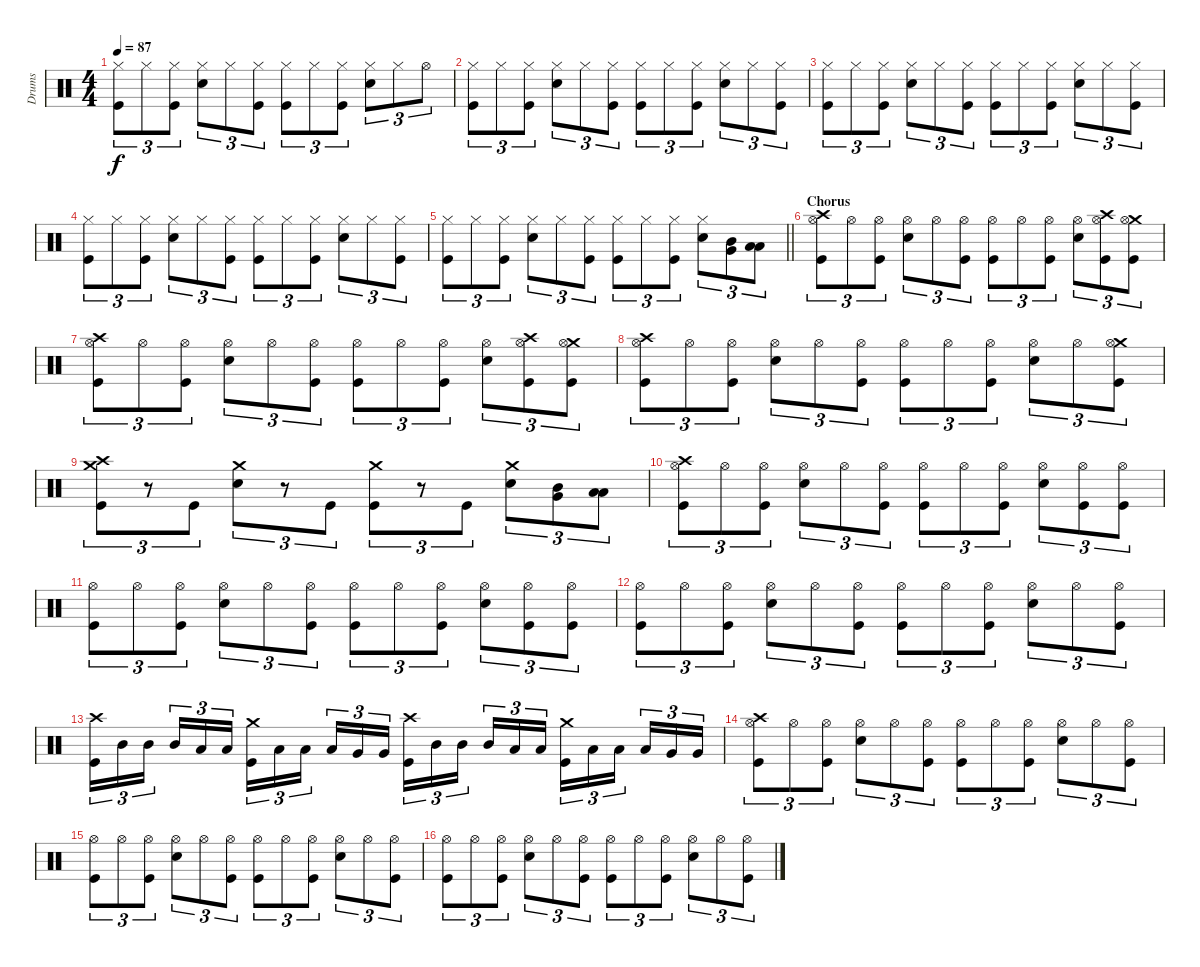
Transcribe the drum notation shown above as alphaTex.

\track ("Drums" "Drums") {instrument percussion}
\staff {score}
\articulation defaults
\ts (4 4)
\tempo 87
\clef neutral
\ks c
("Hi-Hat (closed)" "Kick (hit)").8{tu (3 2) dy f} "Hi-Hat (closed)".8{tu (3 2)} ("Hi-Hat (closed)" "Kick (hit)").8{tu (3 2)} ("Hi-Hat (closed)" "Snare (hit) 2").8{tu (3 2)} "Hi-Hat (closed)".8{tu (3 2)} ("Hi-Hat (closed)" "Kick (hit)").8{tu (3 2)} ("Hi-Hat (closed)" "Kick (hit)").8{tu (3 2)} "Hi-Hat (closed)".8{tu (3 2)} ("Hi-Hat (closed)" "Kick (hit)").8{tu (3 2)} ("Hi-Hat (closed)" "Snare (hit) 2").8{tu (3 2)} "Hi-Hat (closed)".8{tu (3 2)} "Hi-Hat (open)".8{tu (3 2)} |
("Hi-Hat (closed)" "Kick (hit)").8{tu (3 2)} "Hi-Hat (closed)".8{tu (3 2)} ("Hi-Hat (closed)" "Kick (hit)").8{tu (3 2)} ("Hi-Hat (closed)" "Snare (hit) 2").8{tu (3 2)} "Hi-Hat (closed)".8{tu (3 2)} ("Hi-Hat (closed)" "Kick (hit)").8{tu (3 2)} ("Hi-Hat (closed)" "Kick (hit)").8{tu (3 2)} "Hi-Hat (closed)".8{tu (3 2)} ("Hi-Hat (closed)" "Kick (hit)").8{tu (3 2)} ("Hi-Hat (closed)" "Snare (hit) 2").8{tu (3 2)} "Hi-Hat (closed)".8{tu (3 2)} ("Hi-Hat (closed)" "Kick (hit)").8{tu (3 2)} |
("Hi-Hat (closed)" "Kick (hit)").8{tu (3 2)} "Hi-Hat (closed)".8{tu (3 2)} ("Hi-Hat (closed)" "Kick (hit)").8{tu (3 2)} ("Hi-Hat (closed)" "Snare (hit) 2").8{tu (3 2)} "Hi-Hat (closed)".8{tu (3 2)} ("Hi-Hat (closed)" "Kick (hit)").8{tu (3 2)} ("Hi-Hat (closed)" "Kick (hit)").8{tu (3 2)} "Hi-Hat (closed)".8{tu (3 2)} ("Hi-Hat (closed)" "Kick (hit)").8{tu (3 2)} ("Hi-Hat (closed)" "Snare (hit) 2").8{tu (3 2)} "Hi-Hat (closed)".8{tu (3 2)} ("Hi-Hat (closed)" "Kick (hit)").8{tu (3 2)} |
("Hi-Hat (closed)" "Kick (hit)").8{tu (3 2)} "Hi-Hat (closed)".8{tu (3 2)} ("Hi-Hat (closed)" "Kick (hit)").8{tu (3 2)} ("Hi-Hat (closed)" "Snare (hit) 2").8{tu (3 2)} "Hi-Hat (closed)".8{tu (3 2)} ("Hi-Hat (closed)" "Kick (hit)").8{tu (3 2)} ("Hi-Hat (closed)" "Kick (hit)").8{tu (3 2)} "Hi-Hat (closed)".8{tu (3 2)} ("Hi-Hat (closed)" "Kick (hit)").8{tu (3 2)} ("Hi-Hat (closed)" "Snare (hit) 2").8{tu (3 2)} "Hi-Hat (closed)".8{tu (3 2)} ("Hi-Hat (closed)" "Kick (hit)").8{tu (3 2)} |
\barLineRight lightlight
("Hi-Hat (closed)" "Kick (hit)").8{tu (3 2)} "Hi-Hat (closed)".8{tu (3 2)} ("Hi-Hat (closed)" "Kick (hit)").8{tu (3 2)} ("Hi-Hat (closed)" "Snare (hit) 2").8{tu (3 2)} "Hi-Hat (closed)".8{tu (3 2)} ("Hi-Hat (closed)" "Kick (hit)").8{tu (3 2)} ("Hi-Hat (closed)" "Kick (hit)").8{tu (3 2)} "Hi-Hat (closed)".8{tu (3 2)} ("Hi-Hat (closed)" "Kick (hit)").8{tu (3 2)} ("Hi-Hat (closed)" "Snare (hit) 2").8{tu (3 2)} ("Very Low Tom (hit)" "Mid Tom (hit)").8{tu (3 2)} ("Low Floor Tom (hit)" "Low Tom (hit)").8{tu (3 2)} |
\section ("" "Chorus")
("Crash high (hit)" "Hi-Hat (open)" "Kick (hit)").8{tu (3 2)} "Hi-Hat (open)".8{tu (3 2)} ("Hi-Hat (open)" "Kick (hit)").8{tu (3 2)} ("Hi-Hat (open)" "Snare (hit) 2").8{tu (3 2)} "Hi-Hat (open)".8{tu (3 2)} ("Hi-Hat (open)" "Kick (hit)").8{tu (3 2)} ("Hi-Hat (open)" "Kick (hit)").8{tu (3 2)} "Hi-Hat (open)".8{tu (3 2)} ("Hi-Hat (open)" "Kick (hit)").8{tu (3 2)} ("Hi-Hat (open)" "Snare (hit) 2").8{tu (3 2)} ("Crash high (hit)" "Hi-Hat (open)" "Kick (hit)").8{tu (3 2)} ("Crash medium (hit)" "Hi-Hat (open)" "Kick (hit)").8{tu (3 2)} |
("Crash high (hit)" "Hi-Hat (open)" "Kick (hit)").8{tu (3 2)} "Hi-Hat (open)".8{tu (3 2)} ("Hi-Hat (open)" "Kick (hit)").8{tu (3 2)} ("Hi-Hat (open)" "Snare (hit) 2").8{tu (3 2)} "Hi-Hat (open)".8{tu (3 2)} ("Hi-Hat (open)" "Kick (hit)").8{tu (3 2)} ("Hi-Hat (open)" "Kick (hit)").8{tu (3 2)} "Hi-Hat (open)".8{tu (3 2)} ("Hi-Hat (open)" "Kick (hit)").8{tu (3 2)} ("Hi-Hat (open)" "Snare (hit) 2").8{tu (3 2)} ("Crash high (hit)" "Hi-Hat (open)" "Kick (hit)").8{tu (3 2)} ("Crash medium (hit)" "Hi-Hat (open)" "Kick (hit)").8{tu (3 2)} |
("Crash high (hit)" "Hi-Hat (open)" "Kick (hit)").8{tu (3 2)} "Hi-Hat (open)".8{tu (3 2)} ("Hi-Hat (open)" "Kick (hit)").8{tu (3 2)} ("Hi-Hat (open)" "Snare (hit) 2").8{tu (3 2)} "Hi-Hat (open)".8{tu (3 2)} ("Hi-Hat (open)" "Kick (hit)").8{tu (3 2)} ("Hi-Hat (open)" "Kick (hit)").8{tu (3 2)} "Hi-Hat (open)".8{tu (3 2)} ("Hi-Hat (open)" "Kick (hit)").8{tu (3 2)} ("Hi-Hat (open)" "Snare (hit) 2").8{tu (3 2)} "Hi-Hat (open)".8{tu (3 2)} ("Crash medium (hit)" "Hi-Hat (open)" "Kick (hit)").8{tu (3 2)} |
("Crash high (hit)" "Crash medium (hit)" "Kick (hit)").8{tu (3 2)} r.8{tu (3 2)} "Kick (hit)".8{tu (3 2)} ("Crash medium (hit)" "Snare (hit) 2").8{tu (3 2)} r.8{tu (3 2)} "Kick (hit)".8{tu (3 2)} ("Crash medium (hit)" "Kick (hit)").8{tu (3 2)} r.8{tu (3 2)} "Kick (hit)".8{tu (3 2)} ("Crash medium (hit)" "Snare (hit) 2").8{tu (3 2)} ("Very Low Tom (hit)" "Mid Tom (hit)").8{tu (3 2)} ("Low Floor Tom (hit)" "Low Tom (hit)").8{tu (3 2)} |
("Crash high (hit)" "Hi-Hat (open)" "Kick (hit)").8{tu (3 2)} "Hi-Hat (open)".8{tu (3 2)} ("Hi-Hat (open)" "Kick (hit)").8{tu (3 2)} ("Hi-Hat (open)" "Snare (hit) 2").8{tu (3 2)} "Hi-Hat (open)".8{tu (3 2)} ("Hi-Hat (open)" "Kick (hit)").8{tu (3 2)} ("Hi-Hat (open)" "Kick (hit)").8{tu (3 2)} "Hi-Hat (open)".8{tu (3 2)} ("Hi-Hat (open)" "Kick (hit)").8{tu (3 2)} ("Hi-Hat (open)" "Snare (hit) 2").8{tu (3 2)} ("Hi-Hat (open)" "Kick (hit)").8{tu (3 2)} ("Hi-Hat (open)" "Kick (hit)").8{tu (3 2)} |
("Hi-Hat (open)" "Kick (hit)").8{tu (3 2)} "Hi-Hat (open)".8{tu (3 2)} ("Hi-Hat (open)" "Kick (hit)").8{tu (3 2)} ("Hi-Hat (open)" "Snare (hit) 2").8{tu (3 2)} "Hi-Hat (open)".8{tu (3 2)} ("Hi-Hat (open)" "Kick (hit)").8{tu (3 2)} ("Hi-Hat (open)" "Kick (hit)").8{tu (3 2)} "Hi-Hat (open)".8{tu (3 2)} ("Hi-Hat (open)" "Kick (hit)").8{tu (3 2)} ("Hi-Hat (open)" "Snare (hit) 2").8{tu (3 2)} ("Hi-Hat (open)" "Kick (hit)").8{tu (3 2)} ("Hi-Hat (open)" "Kick (hit)").8{tu (3 2)} |
("Hi-Hat (open)" "Kick (hit)").8{tu (3 2)} "Hi-Hat (open)".8{tu (3 2)} ("Hi-Hat (open)" "Kick (hit)").8{tu (3 2)} ("Hi-Hat (open)" "Snare (hit) 2").8{tu (3 2)} "Hi-Hat (open)".8{tu (3 2)} ("Hi-Hat (open)" "Kick (hit)").8{tu (3 2)} ("Hi-Hat (open)" "Kick (hit)").8{tu (3 2)} "Hi-Hat (open)".8{tu (3 2)} ("Hi-Hat (open)" "Kick (hit)").8{tu (3 2)} ("Hi-Hat (open)" "Snare (hit) 2").8{tu (3 2)} "Hi-Hat (open)".8{tu (3 2)} ("Hi-Hat (open)" "Kick (hit)").8{tu (3 2)} |
("Crash high (hit)" "Kick (hit)").16{tu (3 2)} "Mid Tom (hit)".16{tu (3 2)} "Mid Tom (hit)".16{tu (3 2) beam splitsecondary} "Mid Tom (hit)".16{tu (3 2)} "Low Tom (hit)".16{tu (3 2)} "Low Tom (hit)".16{tu (3 2)} ("Crash medium (hit)" "Kick (hit)").16{tu (3 2)} "Low Tom (hit)".16{tu (3 2)} "Low Tom (hit)".16{tu (3 2) beam splitsecondary} "Low Tom (hit)".16{tu (3 2)} "Very Low Tom (hit)".16{tu (3 2)} "Very Low Tom (hit)".16{tu (3 2)} ("Crash high (hit)" "Kick (hit)").16{tu (3 2)} "Mid Tom (hit)".16{tu (3 2)} "Mid Tom (hit)".16{tu (3 2) beam splitsecondary} "Mid Tom (hit)".16{tu (3 2)} "Low Tom (hit)".16{tu (3 2)} "Low Tom (hit)".16{tu (3 2)} ("Crash medium (hit)" "Kick (hit)").16{tu (3 2)} "Low Tom (hit)".16{tu (3 2)} "Low Tom (hit)".16{tu (3 2) beam splitsecondary} "Low Tom (hit)".16{tu (3 2)} "Very Low Tom (hit)".16{tu (3 2)} "Very Low Tom (hit)".16{tu (3 2)} |
("Crash high (hit)" "Hi-Hat (open)" "Kick (hit)").8{tu (3 2)} "Hi-Hat (open)".8{tu (3 2)} ("Hi-Hat (open)" "Kick (hit)").8{tu (3 2)} ("Hi-Hat (open)" "Snare (hit) 2").8{tu (3 2)} "Hi-Hat (open)".8{tu (3 2)} ("Hi-Hat (open)" "Kick (hit)").8{tu (3 2)} ("Hi-Hat (open)" "Kick (hit)").8{tu (3 2)} "Hi-Hat (open)".8{tu (3 2)} ("Hi-Hat (open)" "Kick (hit)").8{tu (3 2)} ("Hi-Hat (open)" "Snare (hit) 2").8{tu (3 2)} "Hi-Hat (open)".8{tu (3 2)} ("Hi-Hat (open)" "Kick (hit)").8{tu (3 2)} |
("Hi-Hat (open)" "Kick (hit)").8{tu (3 2)} "Hi-Hat (open)".8{tu (3 2)} ("Hi-Hat (open)" "Kick (hit)").8{tu (3 2)} ("Hi-Hat (open)" "Snare (hit) 2").8{tu (3 2)} "Hi-Hat (open)".8{tu (3 2)} ("Hi-Hat (open)" "Kick (hit)").8{tu (3 2)} ("Hi-Hat (open)" "Kick (hit)").8{tu (3 2)} "Hi-Hat (open)".8{tu (3 2)} ("Hi-Hat (open)" "Kick (hit)").8{tu (3 2)} ("Hi-Hat (open)" "Snare (hit) 2").8{tu (3 2)} "Hi-Hat (open)".8{tu (3 2)} ("Hi-Hat (open)" "Kick (hit)").8{tu (3 2)} |
("Hi-Hat (open)" "Kick (hit)").8{tu (3 2)} "Hi-Hat (open)".8{tu (3 2)} ("Hi-Hat (open)" "Kick (hit)").8{tu (3 2)} ("Hi-Hat (open)" "Snare (hit) 2").8{tu (3 2)} "Hi-Hat (open)".8{tu (3 2)} ("Hi-Hat (open)" "Kick (hit)").8{tu (3 2)} ("Hi-Hat (open)" "Kick (hit)").8{tu (3 2)} "Hi-Hat (open)".8{tu (3 2)} ("Hi-Hat (open)" "Kick (hit)").8{tu (3 2)} ("Hi-Hat (open)" "Snare (hit) 2").8{tu (3 2)} "Hi-Hat (open)".8{tu (3 2)} ("Hi-Hat (open)" "Kick (hit)").8{tu (3 2)}
